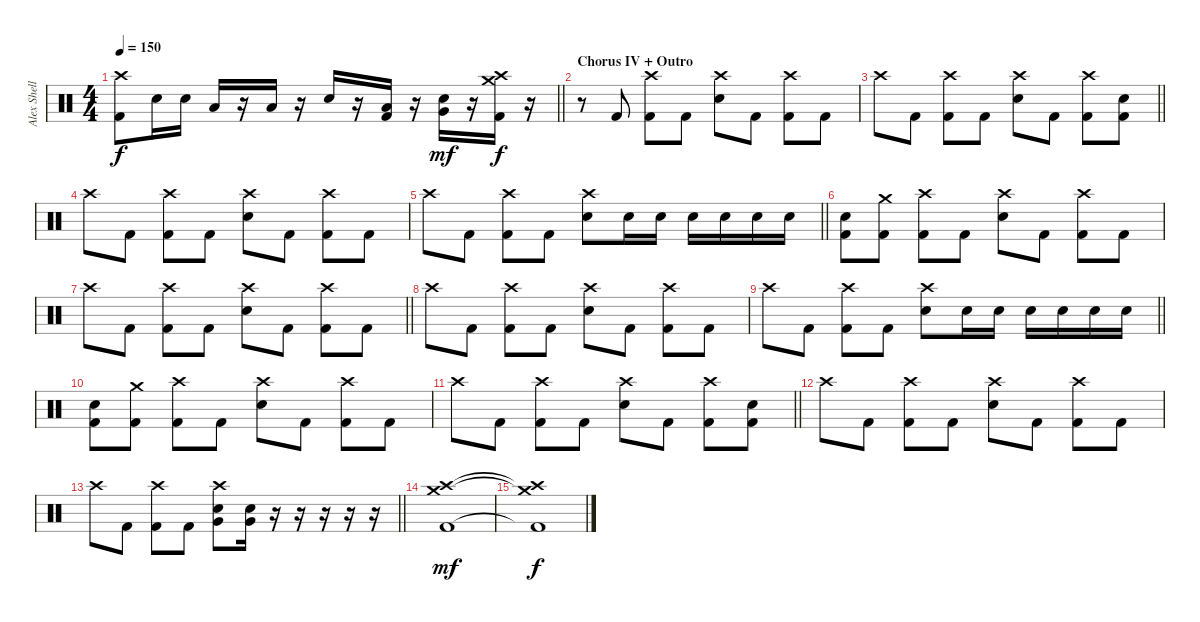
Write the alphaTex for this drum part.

\track ("Alex Shellnutt" "Alex Shell") {instrument percussion}
\staff {score}
\articulation defaults
\ts (4 4)
\tempo 150
\clef neutral
\barLineRight lightlight
\ks c
("Crash high (hit)" "Kick (hit) 2").8{dy f} "Snare (hit) 2".16 "Snare (hit) 2".16 "Low Tom (hit)".16 r.16 "Low Floor Tom (hit)".16 r.16 "Snare (hit) 2".16 r.16 ("Low Floor Tom (hit)" "Kick (hit) 2").16 r.16 ("Very Low Tom (hit)" "Snare (hit) 2").16{dy mf} r.16 ("Crash medium (hit)" "Crash high (hit)" "Kick (hit) 2").16{dy f} r.16 |
\section ("" "Chorus IV + Outro")
r.8 "Kick (hit) 2".8 ("Crash high (hit)" "Kick (hit) 2").8 "Kick (hit) 2".8 ("Crash high (hit)" "Snare (hit) 2").8 "Kick (hit) 2".8 ("Crash high (hit)" "Kick (hit) 2").8 "Kick (hit) 2".8 |
\barLineRight lightlight "Crash high (hit)".8 "Kick (hit) 2".8
("Crash high (hit)" "Kick (hit) 2").8 "Kick (hit) 2".8 ("Crash high (hit)" "Snare (hit) 2").8 "Kick (hit) 2".8 ("Crash high (hit)" "Kick (hit) 2").8 ("Snare (hit) 2" "Kick (hit) 2").8 |
"Crash high (hit)".8 "Kick (hit) 2".8 ("Crash high (hit)" "Kick (hit) 2").8 "Kick (hit) 2".8 ("Crash high (hit)" "Snare (hit) 2").8 "Kick (hit) 2".8 ("Crash high (hit)" "Kick (hit) 2").8 "Kick (hit) 2".8 |
\barLineRight lightlight "Crash high (hit)".8 "Kick (hit) 2".8
("Crash high (hit)" "Kick (hit) 2").8 "Kick (hit) 2".8 ("Crash high (hit)" "Snare (hit) 2").8 "Snare (hit) 2".16 "Snare (hit) 2".16 "Snare (hit) 2".16 "Snare (hit) 2".16 "Snare (hit) 2".16 "Snare (hit) 2".16 |
("Snare (hit) 2" "Kick (hit) 2").8 ("Crash medium (hit)" "Kick (hit) 2").8 ("Crash high (hit)" "Kick (hit) 2").8 "Kick (hit) 2".8 ("Crash high (hit)" "Snare (hit) 2").8 "Kick (hit) 2".8 ("Crash high (hit)" "Kick (hit) 2").8 "Kick (hit) 2".8 |
\barLineRight lightlight "Crash high (hit)".8 "Kick (hit) 2".8
("Crash high (hit)" "Kick (hit) 2").8 "Kick (hit) 2".8 ("Crash high (hit)" "Snare (hit) 2").8 "Kick (hit) 2".8 ("Crash high (hit)" "Kick (hit) 2").8 "Kick (hit) 2".8 |
"Crash high (hit)".8 "Kick (hit) 2".8 ("Crash high (hit)" "Kick (hit) 2").8 "Kick (hit) 2".8 ("Crash high (hit)" "Snare (hit) 2").8 "Kick (hit) 2".8 ("Crash high (hit)" "Kick (hit) 2").8 "Kick (hit) 2".8 |
\barLineRight lightlight "Crash high (hit)".8 "Kick (hit) 2".8
("Crash high (hit)" "Kick (hit) 2").8 "Kick (hit) 2".8 ("Crash high (hit)" "Snare (hit) 2").8 "Snare (hit) 2".16 "Snare (hit) 2".16 "Snare (hit) 2".16 "Snare (hit) 2".16 "Snare (hit) 2".16 "Snare (hit) 2".16 |
("Snare (hit) 2" "Kick (hit) 2").8 ("Crash medium (hit)" "Kick (hit) 2").8 ("Crash high (hit)" "Kick (hit) 2").8 "Kick (hit) 2".8 ("Crash high (hit)" "Snare (hit) 2").8 "Kick (hit) 2".8 ("Crash high (hit)" "Kick (hit) 2").8 "Kick (hit) 2".8 |
\barLineRight lightlight "Crash high (hit)".8 "Kick (hit) 2".8
("Crash high (hit)" "Kick (hit) 2").8 "Kick (hit) 2".8 ("Crash high (hit)" "Snare (hit) 2").8 "Kick (hit) 2".8 ("Crash high (hit)" "Kick (hit) 2").8 ("Snare (hit) 2" "Kick (hit) 2").8 |
"Crash high (hit)".8 "Kick (hit) 2".8 ("Crash high (hit)" "Kick (hit) 2").8 "Kick (hit) 2".8 ("Crash high (hit)" "Snare (hit) 2").8 "Kick (hit) 2".8 ("Crash high (hit)" "Kick (hit) 2").8 "Kick (hit) 2".8 |
\barLineRight lightlight "Crash high (hit)".8 "Kick (hit) 2".8
("Crash high (hit)" "Kick (hit) 2").8 "Kick (hit) 2".8 ("Crash high (hit)" "Very Low Tom (hit)" "Snare (hit) 2").8 ("Very Low Tom (hit)" "Snare (hit) 2").16 r.16 r.16 r.16 r.16 r.16 |
("Crash medium (hit)" "Crash high (hit)" "Kick (hit) 2").1{dy mf} |
("Crash medium (hit)"{t} "Crash high (hit)"{t} "Kick (hit) 2"{t}).1{dy f}
